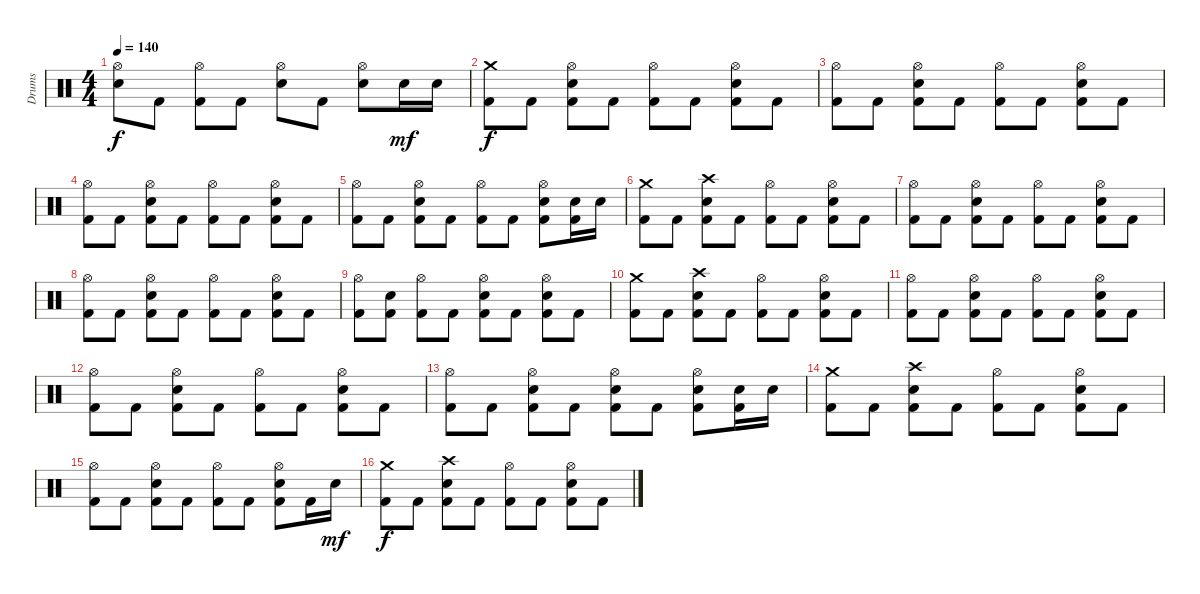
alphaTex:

\track ("Drums" "Drums") {instrument percussion}
\staff {score}
\articulation defaults
\ts (4 4)
\tempo 140
\clef neutral
\ks c
("Hi-Hat (open)" "Electric Snare (hit)").8{dy f} "Kick (hit) 2".8 ("Hi-Hat (open)" "Kick (hit) 2").8 "Kick (hit) 2".8 ("Hi-Hat (open)" "Electric Snare (hit)").8 "Kick (hit) 2".8 ("Hi-Hat (open)" "Electric Snare (hit)").8 "Electric Snare (hit)".16{dy mf} "Electric Snare (hit)".16 |
("Crash medium (hit)" "Kick (hit) 2").8{dy f} "Kick (hit) 2".8 ("Hi-Hat (open)" "Electric Snare (hit)" "Kick (hit) 2").8 "Kick (hit) 2".8 ("Hi-Hat (open)" "Kick (hit) 2").8 "Kick (hit) 2".8 ("Hi-Hat (open)" "Electric Snare (hit)" "Kick (hit) 2").8 "Kick (hit) 2".8 |
("Hi-Hat (open)" "Kick (hit) 2").8 "Kick (hit) 2".8 ("Hi-Hat (open)" "Electric Snare (hit)" "Kick (hit) 2").8 "Kick (hit) 2".8 ("Hi-Hat (open)" "Kick (hit) 2").8 "Kick (hit) 2".8 ("Hi-Hat (open)" "Electric Snare (hit)" "Kick (hit) 2").8 "Kick (hit) 2".8 |
("Hi-Hat (open)" "Kick (hit) 2").8 "Kick (hit) 2".8 ("Hi-Hat (open)" "Electric Snare (hit)" "Kick (hit) 2").8 "Kick (hit) 2".8 ("Hi-Hat (open)" "Kick (hit) 2").8 "Kick (hit) 2".8 ("Hi-Hat (open)" "Electric Snare (hit)" "Kick (hit) 2").8 "Kick (hit) 2".8 |
("Hi-Hat (open)" "Kick (hit) 2").8 "Kick (hit) 2".8 ("Hi-Hat (open)" "Electric Snare (hit)" "Kick (hit) 2").8 "Kick (hit) 2".8 ("Hi-Hat (open)" "Kick (hit) 2").8 "Kick (hit) 2".8 ("Hi-Hat (open)" "Electric Snare (hit)" "Kick (hit) 2").8 ("Electric Snare (hit)" "Kick (hit) 2").16 "Electric Snare (hit)".16 |
("Crash medium (hit)" "Kick (hit) 2").8 "Kick (hit) 2".8 ("Crash high (hit)" "Electric Snare (hit)" "Kick (hit) 2").8 "Kick (hit) 2".8 ("Hi-Hat (open)" "Kick (hit) 2").8 "Kick (hit) 2".8 ("Hi-Hat (open)" "Electric Snare (hit)" "Kick (hit) 2").8 "Kick (hit) 2".8 |
("Hi-Hat (open)" "Kick (hit) 2").8 "Kick (hit) 2".8 ("Hi-Hat (open)" "Electric Snare (hit)" "Kick (hit) 2").8 "Kick (hit) 2".8 ("Hi-Hat (open)" "Kick (hit) 2").8 "Kick (hit) 2".8 ("Hi-Hat (open)" "Electric Snare (hit)" "Kick (hit) 2").8 "Kick (hit) 2".8 |
("Hi-Hat (open)" "Kick (hit) 2").8 "Kick (hit) 2".8 ("Hi-Hat (open)" "Electric Snare (hit)" "Kick (hit) 2").8 "Kick (hit) 2".8 ("Hi-Hat (open)" "Kick (hit) 2").8 "Kick (hit) 2".8 ("Hi-Hat (open)" "Electric Snare (hit)" "Kick (hit) 2").8 "Kick (hit) 2".8 |
("Hi-Hat (open)" "Kick (hit) 2").8 ("Electric Snare (hit)" "Kick (hit) 2").8 ("Hi-Hat (open)" "Kick (hit) 2").8 "Kick (hit) 2".8 ("Hi-Hat (open)" "Electric Snare (hit)" "Kick (hit) 2").8 "Kick (hit) 2".8 ("Hi-Hat (open)" "Electric Snare (hit)" "Kick (hit) 2").8 "Kick (hit) 2".8 |
("Crash medium (hit)" "Kick (hit) 2").8 "Kick (hit) 2".8 ("Crash high (hit)" "Electric Snare (hit)" "Kick (hit) 2").8 "Kick (hit) 2".8 ("Hi-Hat (open)" "Kick (hit) 2").8 "Kick (hit) 2".8 ("Hi-Hat (open)" "Electric Snare (hit)" "Kick (hit) 2").8 "Kick (hit) 2".8 |
("Hi-Hat (open)" "Kick (hit) 2").8 "Kick (hit) 2".8 ("Hi-Hat (open)" "Electric Snare (hit)" "Kick (hit) 2").8 "Kick (hit) 2".8 ("Hi-Hat (open)" "Kick (hit) 2").8 "Kick (hit) 2".8 ("Hi-Hat (open)" "Electric Snare (hit)" "Kick (hit) 2").8 "Kick (hit) 2".8 |
("Hi-Hat (open)" "Kick (hit) 2").8 "Kick (hit) 2".8 ("Hi-Hat (open)" "Electric Snare (hit)" "Kick (hit) 2").8 "Kick (hit) 2".8 ("Hi-Hat (open)" "Kick (hit) 2").8 "Kick (hit) 2".8 ("Hi-Hat (open)" "Electric Snare (hit)" "Kick (hit) 2").8 "Kick (hit) 2".8 |
("Hi-Hat (open)" "Kick (hit) 2").8 "Kick (hit) 2".8 ("Hi-Hat (open)" "Electric Snare (hit)" "Kick (hit) 2").8 "Kick (hit) 2".8 ("Hi-Hat (open)" "Electric Snare (hit)" "Kick (hit) 2").8 "Kick (hit) 2".8 ("Hi-Hat (open)" "Electric Snare (hit)" "Kick (hit) 2").8 ("Electric Snare (hit)" "Kick (hit) 2").16 "Electric Snare (hit)".16 |
("Crash medium (hit)" "Kick (hit) 2").8 "Kick (hit) 2".8 ("Crash high (hit)" "Electric Snare (hit)" "Kick (hit) 2").8 "Kick (hit) 2".8 ("Hi-Hat (open)" "Kick (hit) 2").8 "Kick (hit) 2".8 ("Hi-Hat (open)" "Electric Snare (hit)" "Kick (hit) 2").8 "Kick (hit) 2".8 |
("Hi-Hat (open)" "Kick (hit) 2").8 "Kick (hit) 2".8 ("Hi-Hat (open)" "Electric Snare (hit)" "Kick (hit) 2").8 "Kick (hit) 2".8 ("Hi-Hat (open)" "Kick (hit) 2").8 "Kick (hit) 2".8 ("Hi-Hat (open)" "Electric Snare (hit)" "Kick (hit) 2").8 "Kick (hit) 2".16 "Electric Snare (hit)".16{dy mf} |
("Crash medium (hit)" "Kick (hit) 2").8{dy f} "Kick (hit) 2".8 ("Crash high (hit)" "Electric Snare (hit)" "Kick (hit) 2").8 "Kick (hit) 2".8 ("Hi-Hat (open)" "Kick (hit) 2").8 "Kick (hit) 2".8 ("Hi-Hat (open)" "Electric Snare (hit)" "Kick (hit) 2").8 "Kick (hit) 2".8
